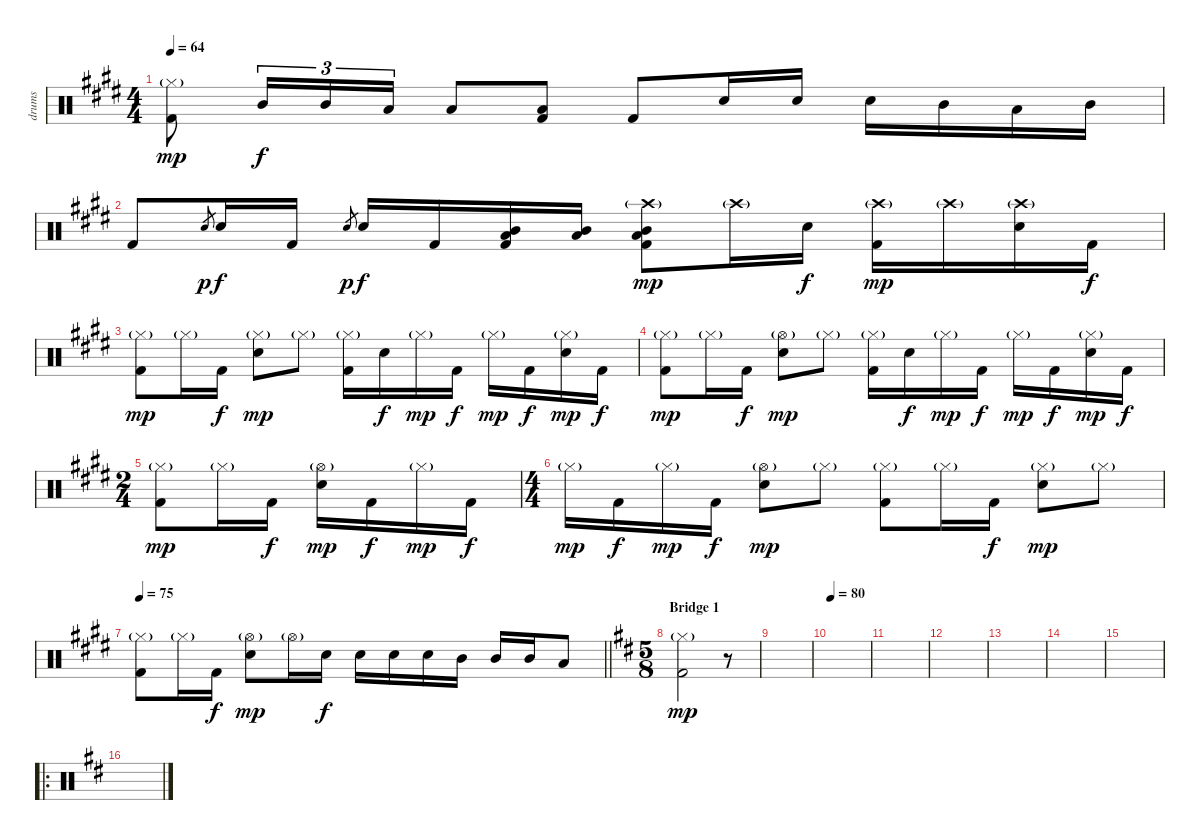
\track ("drums" "drums") {instrument percussion}
\staff {score}
\articulation defaults
\ts (4 4)
\tempo 64
\clef neutral
\ks e
("Hi-Hat (closed)"{g} "Kick (hit) 2").8{dy mp} "Mid Tom (hit)".16{tu (3 2) dy f} "Mid Tom (hit)".16{tu (3 2)} "Low Tom (hit)".16{tu (3 2)} "Low Tom (hit)".8 ("Low Tom (hit)" "Kick (hit) 2").8 "Kick (hit) 2".8 "Electric Snare (hit)".16 "Electric Snare (hit)".16 "Electric Snare (hit)".16 "Mid Tom (hit)".16 "Low Tom (hit)".16 "Mid Tom (hit)".16 |
"Kick (hit) 2".8 "Electric Snare (hit)".8{gr dy p} "Electric Snare (hit)".16{dy f} "Kick (hit) 2".16 "Electric Snare (hit)".8{gr dy p} "Electric Snare (hit)".16{dy f} "Kick (hit) 2".16 ("Mid Tom (hit)" "Low Tom (hit)" "Kick (hit) 2").16 ("Mid Tom (hit)" "Low Tom (hit)").16 ("Crash high (hit)"{g} "Mid Tom (hit)" "Low Tom (hit)" "Kick (hit) 2").8{dy mp} "Crash high (hit)"{g}.16 "Electric Snare (hit)".16{dy f} ("Crash high (hit)"{g} "Kick (hit) 2").16{dy mp} "Crash high (hit)"{g}.16 ("Crash high (hit)"{g} "Electric Snare (hit)").16 "Kick (hit) 2".16{dy f} |
("Hi-Hat (closed)"{g} "Kick (hit) 2").8{dy mp} "Hi-Hat (closed)"{g}.16 "Kick (hit) 2".16{dy f} ("Hi-Hat (closed)"{g} "Electric Snare (hit)").8{dy mp} "Hi-Hat (closed)"{g}.8 ("Hi-Hat (closed)"{g} "Kick (hit) 2").16 "Electric Snare (hit)".16{dy f} "Hi-Hat (closed)"{g}.16{dy mp} "Kick (hit) 2".16{dy f} "Hi-Hat (closed)"{g}.16{dy mp} "Kick (hit) 2".16{dy f} ("Hi-Hat (closed)"{g} "Electric Snare (hit)").16{dy mp} "Kick (hit) 2".16{dy f} |
("Hi-Hat (closed)"{g} "Kick (hit) 2").8{dy mp} "Hi-Hat (closed)"{g}.16 "Kick (hit) 2".16{dy f} ("Hi-Hat (open)"{g} "Electric Snare (hit)").8{dy mp} "Hi-Hat (closed)"{g}.8 ("Hi-Hat (closed)"{g} "Kick (hit) 2").16 "Electric Snare (hit)".16{dy f} "Hi-Hat (closed)"{g}.16{dy mp} "Kick (hit) 2".16{dy f} "Hi-Hat (closed)"{g}.16{dy mp} "Kick (hit) 2".16{dy f} ("Hi-Hat (closed)"{g} "Electric Snare (hit)").16{dy mp} "Kick (hit) 2".16{dy f} |
\ts (2 4)
("Hi-Hat (closed)"{g} "Kick (hit) 2").8{dy mp} "Hi-Hat (closed)"{g}.16 "Kick (hit) 2".16{dy f} ("Hi-Hat (open)"{g} "Electric Snare (hit)").16{dy mp} "Kick (hit) 2".16{dy f} "Hi-Hat (closed)"{g}.16{dy mp} "Kick (hit) 2".16{dy f} |
\ts (4 4)
"Hi-Hat (closed)"{g}.16{dy mp} "Kick (hit) 2".16{dy f} "Hi-Hat (closed)"{g}.16{dy mp} "Kick (hit) 2".16{dy f} ("Hi-Hat (open)"{g} "Electric Snare (hit)").8{dy mp} "Hi-Hat (closed)"{g}.8 ("Hi-Hat (closed)"{g} "Kick (hit) 2").8 "Hi-Hat (closed)"{g}.16 "Kick (hit) 2".16{dy f} ("Hi-Hat (closed)"{g} "Electric Snare (hit)").8{dy mp} "Hi-Hat (closed)"{g}.8 |
\tempo 75
\barLineRight lightlight
("Hi-Hat (closed)"{g} "Kick (hit) 2").8 "Hi-Hat (closed)"{g}.16 "Kick (hit) 2".16{dy f} ("Hi-Hat (open)"{g} "Electric Snare (hit)").8{dy mp} "Hi-Hat (open)"{g}.16 "Electric Snare (hit)".16{dy f} "Electric Snare (hit)".16 "Electric Snare (hit)".16 "Electric Snare (hit)".16 "Mid Tom (hit)".16 "Mid Tom (hit)".16 "Mid Tom (hit)".16 "Low Tom (hit)".8 |
\ts (5 8)
\section ("" "Bridge 1")
\ks d
("Hi-Hat (closed)"{g} "Kick (hit) 2").2{dy mp} r.8 |
|
\tempo 80
|
|
|
|
|
|
\ro
